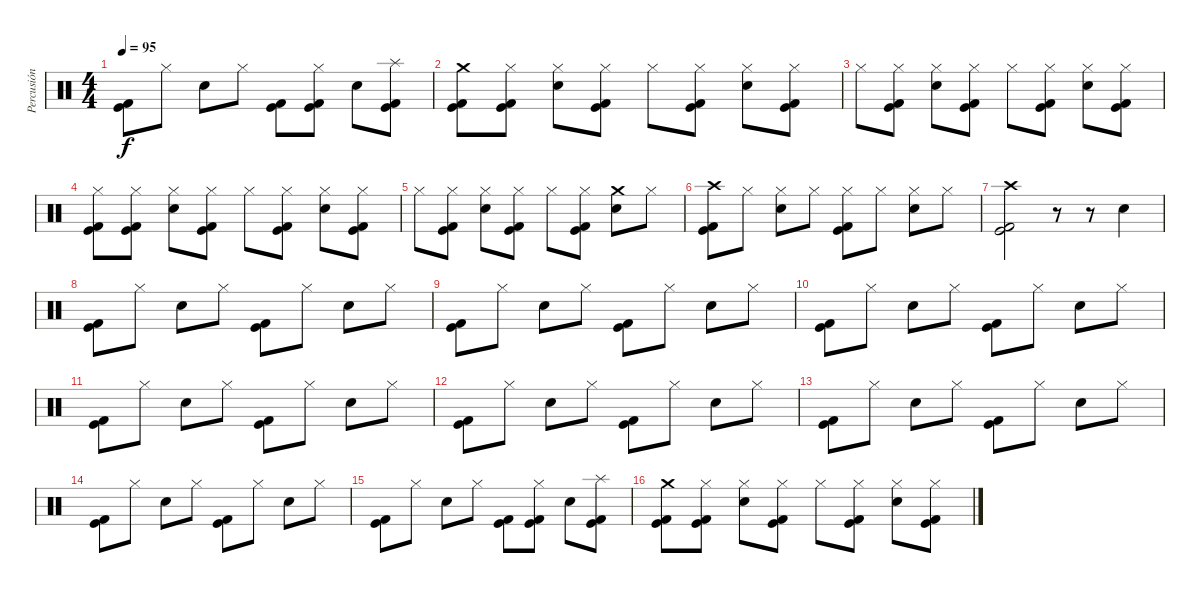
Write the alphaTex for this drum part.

\track ("Percusión" "Percusión") {instrument percussion}
\staff {score}
\articulation defaults
\ts (4 4)
\tempo 95
\clef neutral
\ks c
("Kick (hit) 2" "Kick (hit)").8{dy f} "Hi-Hat (closed)".8 "Snare (hit) 2".8 "Hi-Hat (closed)".8 ("Kick (hit) 2" "Kick (hit)").8 ("Kick (hit) 2" "Hi-Hat (closed)" "Kick (hit)").8 "Snare (hit) 2".8 ("Kick (hit) 2" "Splash (hit)" "Kick (hit)").8 |
("Kick (hit) 2" "Crash medium (hit)" "Kick (hit)").8 ("Kick (hit) 2" "Hi-Hat (closed)" "Kick (hit)").8 ("Snare (hit) 2" "Hi-Hat (closed)").8 ("Kick (hit) 2" "Hi-Hat (closed)" "Kick (hit)").8 "Hi-Hat (closed)".8 ("Kick (hit) 2" "Hi-Hat (closed)" "Kick (hit)").8 ("Snare (hit) 2" "Hi-Hat (closed)").8 ("Kick (hit) 2" "Hi-Hat (closed)" "Kick (hit)").8 |
"Hi-Hat (closed)".8 ("Kick (hit) 2" "Hi-Hat (closed)" "Kick (hit)").8 ("Snare (hit) 2" "Hi-Hat (closed)").8 ("Kick (hit) 2" "Hi-Hat (closed)" "Kick (hit)").8 "Hi-Hat (closed)".8 ("Kick (hit) 2" "Hi-Hat (closed)" "Kick (hit)").8 ("Snare (hit) 2" "Hi-Hat (closed)").8 ("Kick (hit) 2" "Hi-Hat (closed)" "Kick (hit)").8 |
("Kick (hit) 2" "Hi-Hat (closed)" "Kick (hit)").8 ("Kick (hit) 2" "Hi-Hat (closed)" "Kick (hit)").8 ("Snare (hit) 2" "Hi-Hat (closed)").8 ("Kick (hit) 2" "Hi-Hat (closed)" "Kick (hit)").8 "Hi-Hat (closed)".8 ("Kick (hit) 2" "Hi-Hat (closed)" "Kick (hit)").8 ("Snare (hit) 2" "Hi-Hat (closed)").8 ("Kick (hit) 2" "Hi-Hat (closed)" "Kick (hit)").8 |
"Hi-Hat (closed)".8 ("Kick (hit) 2" "Hi-Hat (closed)" "Kick (hit)").8 ("Snare (hit) 2" "Hi-Hat (closed)").8 ("Kick (hit) 2" "Hi-Hat (closed)" "Kick (hit)").8 "Hi-Hat (closed)".8 ("Kick (hit) 2" "Hi-Hat (closed)" "Kick (hit)").8 ("Snare (hit) 2" "Crash medium (hit)").8 "Hi-Hat (closed)".8 |
("Kick (hit) 2" "Crash high (hit)" "Kick (hit)").8 "Hi-Hat (closed)".8 ("Snare (hit) 2" "Hi-Hat (closed)").8 "Hi-Hat (closed)".8 ("Kick (hit) 2" "Hi-Hat (closed)" "Kick (hit)").8 "Hi-Hat (closed)".8 ("Snare (hit) 2" "Hi-Hat (closed)").8 "Hi-Hat (closed)".8 |
("Kick (hit) 2" "Crash high (hit)" "Kick (hit)").2 r.8 r.8 "Snare (hit) 2".4 |
("Kick (hit) 2" "Kick (hit)").8 "Hi-Hat (closed)".8 "Snare (hit) 2".8 "Hi-Hat (closed)".8 ("Kick (hit) 2" "Kick (hit)").8 "Hi-Hat (closed)".8 "Snare (hit) 2".8 "Hi-Hat (closed)".8 |
("Kick (hit) 2" "Kick (hit)").8 "Hi-Hat (closed)".8 "Snare (hit) 2".8 "Hi-Hat (closed)".8 ("Kick (hit) 2" "Kick (hit)").8 "Hi-Hat (closed)".8 "Snare (hit) 2".8 "Hi-Hat (closed)".8 |
("Kick (hit) 2" "Kick (hit)").8 "Hi-Hat (closed)".8 "Snare (hit) 2".8 "Hi-Hat (closed)".8 ("Kick (hit) 2" "Kick (hit)").8 "Hi-Hat (closed)".8 "Snare (hit) 2".8 "Hi-Hat (closed)".8 |
("Kick (hit) 2" "Kick (hit)").8 "Hi-Hat (closed)".8 "Snare (hit) 2".8 "Hi-Hat (closed)".8 ("Kick (hit) 2" "Kick (hit)").8 "Hi-Hat (closed)".8 "Snare (hit) 2".8 "Hi-Hat (closed)".8 |
("Kick (hit) 2" "Kick (hit)").8 "Hi-Hat (closed)".8 "Snare (hit) 2".8 "Hi-Hat (closed)".8 ("Kick (hit) 2" "Kick (hit)").8 "Hi-Hat (closed)".8 "Snare (hit) 2".8 "Hi-Hat (closed)".8 |
("Kick (hit) 2" "Kick (hit)").8 "Hi-Hat (closed)".8 "Snare (hit) 2".8 "Hi-Hat (closed)".8 ("Kick (hit) 2" "Kick (hit)").8 "Hi-Hat (closed)".8 "Snare (hit) 2".8 "Hi-Hat (closed)".8 |
("Kick (hit) 2" "Kick (hit)").8 "Hi-Hat (closed)".8 "Snare (hit) 2".8 "Hi-Hat (closed)".8 ("Kick (hit) 2" "Kick (hit)").8 "Hi-Hat (closed)".8 "Snare (hit) 2".8 "Hi-Hat (closed)".8 |
("Kick (hit) 2" "Kick (hit)").8 "Hi-Hat (closed)".8 "Snare (hit) 2".8 "Hi-Hat (closed)".8 ("Kick (hit) 2" "Kick (hit)").8 ("Kick (hit) 2" "Hi-Hat (closed)" "Kick (hit)").8 "Snare (hit) 2".8 ("Kick (hit) 2" "Splash (hit)" "Kick (hit)").8 |
("Kick (hit) 2" "Crash medium (hit)" "Kick (hit)").8 ("Kick (hit) 2" "Hi-Hat (closed)" "Kick (hit)").8 ("Snare (hit) 2" "Hi-Hat (closed)").8 ("Kick (hit) 2" "Hi-Hat (closed)" "Kick (hit)").8 "Hi-Hat (closed)".8 ("Kick (hit) 2" "Hi-Hat (closed)" "Kick (hit)").8 ("Snare (hit) 2" "Hi-Hat (closed)").8 ("Kick (hit) 2" "Hi-Hat (closed)" "Kick (hit)").8
